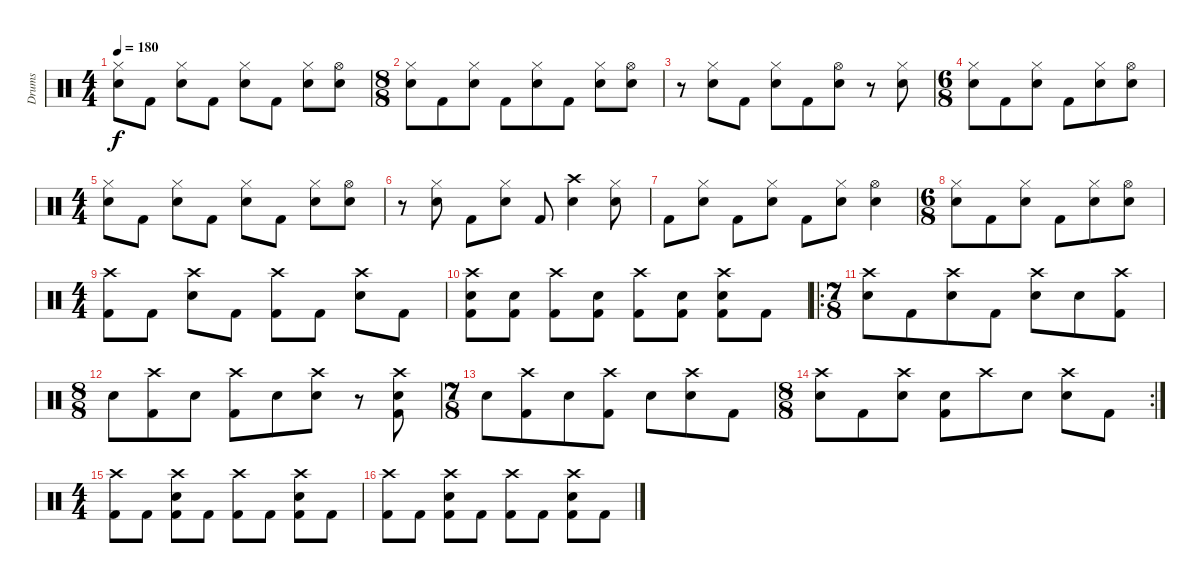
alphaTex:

\track ("Drums" "Drums") {instrument percussion}
\staff {score}
\articulation defaults
\ts (4 4)
\tempo 180
\clef neutral
\ks c
("Hi-Hat (closed)" "Electric Snare (hit)").8{dy f} "Kick (hit) 2".8 ("Hi-Hat (closed)" "Electric Snare (hit)").8 "Kick (hit) 2".8 ("Hi-Hat (closed)" "Electric Snare (hit)").8 "Kick (hit) 2".8 ("Hi-Hat (closed)" "Electric Snare (hit)").8 ("Hi-Hat (open)" "Electric Snare (hit)").8 |
\ts (8 8)
("Hi-Hat (closed)" "Electric Snare (hit)").8 "Kick (hit) 2".8 ("Hi-Hat (closed)" "Electric Snare (hit)").8 "Kick (hit) 2".8 ("Hi-Hat (closed)" "Electric Snare (hit)").8 "Kick (hit) 2".8 ("Hi-Hat (closed)" "Electric Snare (hit)").8 ("Hi-Hat (open)" "Electric Snare (hit)").8 |
r.8 ("Hi-Hat (closed)" "Electric Snare (hit)").8 "Kick (hit) 2".8 ("Hi-Hat (closed)" "Electric Snare (hit)").8 "Kick (hit) 2".8 ("Hi-Hat (open)" "Electric Snare (hit)").8 r.8 ("Hi-Hat (closed)" "Electric Snare (hit)").8 |
\ts (6 8)
("Hi-Hat (closed)" "Electric Snare (hit)").8 "Kick (hit) 2".8 ("Hi-Hat (closed)" "Electric Snare (hit)").8 "Kick (hit) 2".8 ("Hi-Hat (closed)" "Electric Snare (hit)").8 ("Hi-Hat (open)" "Electric Snare (hit)").8 |
\ts (4 4)
("Hi-Hat (closed)" "Electric Snare (hit)").8 "Kick (hit) 2".8 ("Hi-Hat (closed)" "Electric Snare (hit)").8 "Kick (hit) 2".8 ("Hi-Hat (closed)" "Electric Snare (hit)").8 "Kick (hit) 2".8 ("Hi-Hat (closed)" "Electric Snare (hit)").8 ("Hi-Hat (open)" "Electric Snare (hit)").8 |
r.8 ("Hi-Hat (closed)" "Electric Snare (hit)").8 "Kick (hit) 2".8 ("Hi-Hat (closed)" "Electric Snare (hit)").8 "Kick (hit) 2".8 ("Crash high (hit)" "Electric Snare (hit)").4 ("Hi-Hat (closed)" "Electric Snare (hit)").8 |
"Kick (hit) 2".8 ("Hi-Hat (closed)" "Electric Snare (hit)").8 "Kick (hit) 2".8 ("Hi-Hat (closed)" "Electric Snare (hit)").8 "Kick (hit) 2".8 ("Hi-Hat (closed)" "Electric Snare (hit)").8 ("Hi-Hat (open)" "Electric Snare (hit)").4 |
\ts (6 8)
("Hi-Hat (closed)" "Electric Snare (hit)").8 "Kick (hit) 2".8 ("Hi-Hat (closed)" "Electric Snare (hit)").8 "Kick (hit) 2".8 ("Hi-Hat (closed)" "Electric Snare (hit)").8 ("Hi-Hat (open)" "Electric Snare (hit)").8 |
\ts (4 4)
("Crash high (hit)" "Kick (hit) 2").8 "Kick (hit) 2".8 ("Crash high (hit)" "Electric Snare (hit)").8 "Kick (hit) 2".8 ("Crash high (hit)" "Kick (hit) 2").8 "Kick (hit) 2".8 ("Crash high (hit)" "Electric Snare (hit)").8 "Kick (hit) 2".8 |
("Crash high (hit)" "Electric Snare (hit)" "Kick (hit) 2").8 ("Electric Snare (hit)" "Kick (hit) 2").8 ("Crash high (hit)" "Kick (hit) 2").8 ("Electric Snare (hit)" "Kick (hit) 2").8 ("Crash high (hit)" "Kick (hit) 2").8 ("Electric Snare (hit)" "Kick (hit) 2").8 ("Crash high (hit)" "Electric Snare (hit)" "Kick (hit) 2").8 "Kick (hit) 2".8 |
\ro
\ts (7 8)
("Crash high (hit)" "Electric Snare (hit)").8 "Kick (hit) 2".8 ("Crash high (hit)" "Electric Snare (hit)").8 "Kick (hit) 2".8 ("Crash high (hit)" "Electric Snare (hit)").8 "Electric Snare (hit)".8 ("Crash high (hit)" "Kick (hit) 2").8 |
\ts (8 8)
"Electric Snare (hit)".8 ("Crash high (hit)" "Kick (hit) 2").8 "Electric Snare (hit)".8 ("Crash high (hit)" "Kick (hit) 2").8 "Electric Snare (hit)".8 ("Crash high (hit)" "Electric Snare (hit)").8 r.8 ("Crash high (hit)" "Electric Snare (hit)" "Kick (hit) 2").8 |
\ts (7 8)
"Electric Snare (hit)".8 ("Crash high (hit)" "Kick (hit) 2").8 "Electric Snare (hit)".8 ("Crash high (hit)" "Kick (hit) 2").8 "Electric Snare (hit)".8 ("Crash high (hit)" "Electric Snare (hit)").8 "Kick (hit) 2".8 |
\rc 2
\ts (8 8)
("Crash high (hit)" "Electric Snare (hit)").8 "Kick (hit) 2".8 ("Crash high (hit)" "Electric Snare (hit)").8 ("Electric Snare (hit)" "Kick (hit) 2").8 "Crash high (hit)".8 "Electric Snare (hit)".8 ("Crash high (hit)" "Electric Snare (hit)").8 "Kick (hit) 2".8 |
\ts (4 4)
("Crash high (hit)" "Kick (hit) 2").8 "Kick (hit) 2".8 ("Crash high (hit)" "Electric Snare (hit)" "Kick (hit) 2").8 "Kick (hit) 2".8 ("Crash high (hit)" "Kick (hit) 2").8 "Kick (hit) 2".8 ("Crash high (hit)" "Electric Snare (hit)" "Kick (hit) 2").8 "Kick (hit) 2".8 |
("Crash high (hit)" "Kick (hit) 2").8 "Kick (hit) 2".8 ("Crash high (hit)" "Electric Snare (hit)" "Kick (hit) 2").8 "Kick (hit) 2".8 ("Crash high (hit)" "Kick (hit) 2").8 "Kick (hit) 2".8 ("Crash high (hit)" "Electric Snare (hit)" "Kick (hit) 2").8 "Kick (hit) 2".8
